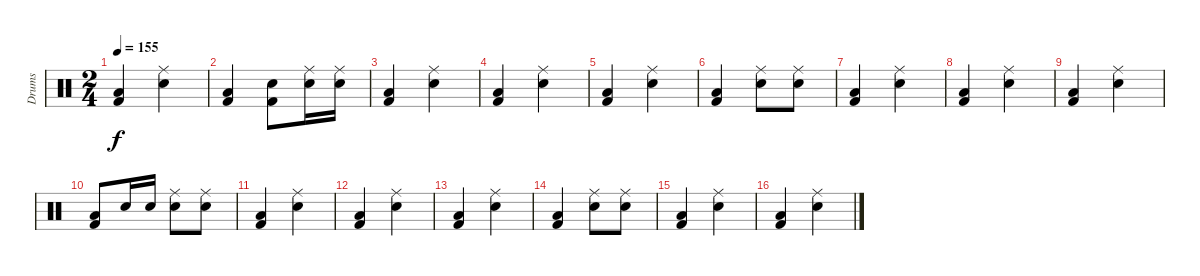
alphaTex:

\track ("Drums" "Drums") {instrument percussion}
\staff {score}
\articulation defaults
\ts (2 4)
\tempo 155
\clef neutral
\ks c
("Low Floor Tom (hit)" "Kick (hit) 2").4{dy f} ("Snare (hit) 2" "Ride (middle)").4 |
("Low Floor Tom (hit)" "Kick (hit) 2").4 ("Snare (hit) 2" "Kick (hit) 2").8 ("Snare (hit) 2" "Ride (middle)").16 ("Snare (hit) 2" "Ride (middle)").16 |
("Low Floor Tom (hit)" "Kick (hit) 2").4 ("Snare (hit) 2" "Ride (middle)").4 |
("Low Floor Tom (hit)" "Kick (hit) 2").4 ("Snare (hit) 2" "Ride (middle)").4 |
("Low Floor Tom (hit)" "Kick (hit) 2").4 ("Snare (hit) 2" "Ride (middle)").4 |
("Low Floor Tom (hit)" "Kick (hit) 2").4 ("Snare (hit) 2" "Ride (middle)").8 ("Snare (hit) 2" "Ride (middle)").8 |
("Low Floor Tom (hit)" "Kick (hit) 2").4 ("Snare (hit) 2" "Ride (middle)").4 |
("Low Floor Tom (hit)" "Kick (hit) 2").4 ("Snare (hit) 2" "Ride (middle)").4 |
("Low Floor Tom (hit)" "Kick (hit) 2").4 ("Snare (hit) 2" "Ride (middle)").4 |
("Low Floor Tom (hit)" "Kick (hit) 2").8 "Snare (hit) 2".16 "Snare (hit) 2".16 ("Snare (hit) 2" "Ride (middle)").8 ("Snare (hit) 2" "Ride (middle)").8 |
("Low Floor Tom (hit)" "Kick (hit) 2").4 ("Snare (hit) 2" "Ride (middle)").4 |
("Low Floor Tom (hit)" "Kick (hit) 2").4 ("Snare (hit) 2" "Ride (middle)").4 |
("Low Floor Tom (hit)" "Kick (hit) 2").4 ("Snare (hit) 2" "Ride (middle)").4 |
("Low Floor Tom (hit)" "Kick (hit) 2").4 ("Snare (hit) 2" "Ride (middle)").8 ("Snare (hit) 2" "Ride (middle)").8 |
("Low Floor Tom (hit)" "Kick (hit) 2").4 ("Snare (hit) 2" "Ride (middle)").4 |
("Low Floor Tom (hit)" "Kick (hit) 2").4 ("Snare (hit) 2" "Ride (middle)").4
